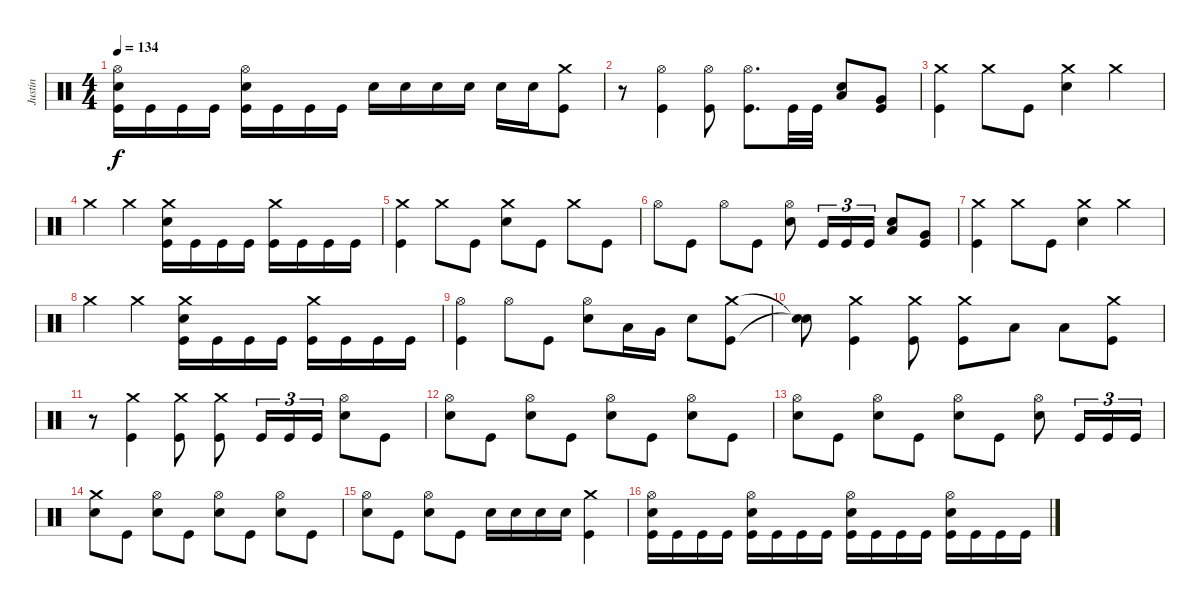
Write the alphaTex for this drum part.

\track ("Justin" "Justin") {instrument percussion}
\staff {score}
\articulation defaults
\ts (4 4)
\tempo 134
\clef neutral
\ks c
("Hi-Hat (open)" "Electric Snare (hit)" "Kick (hit)").16{dy f} "Kick (hit)".16 "Kick (hit)".16 "Kick (hit)".16 ("Hi-Hat (open)" "Electric Snare (hit)" "Kick (hit)").16 "Kick (hit)".16 "Kick (hit)".16 "Kick (hit)".16 "Electric Snare (hit)".16 "Electric Snare (hit)".16 "Electric Snare (hit)".16 "Electric Snare (hit)".16 "Electric Snare (hit)".16 "Electric Snare (hit)".16 ("Crash medium (hit)" "Kick (hit)").8 |
r.8 ("Hi-Hat (open)" "Kick (hit)").4 ("Hi-Hat (open)" "Kick (hit)").8 ("Hi-Hat (open)" "Kick (hit)").8{d} "Kick (hit)".32 "Kick (hit)".32 ("Low Tom (hit)" "Electric Snare (hit)").8 ("Very Low Tom (hit)" "Kick (hit)").8 |
("Crash medium (hit)" "Kick (hit)").4 "Crash medium (hit)".8 "Kick (hit)".8 ("Crash medium (hit)" "Electric Snare (hit)").4 "Crash medium (hit)".4 |
"Crash medium (hit)".4 "Crash medium (hit)".4 ("Crash medium (hit)" "Electric Snare (hit)" "Kick (hit)").16 "Kick (hit)".16 "Kick (hit)".16 "Kick (hit)".16 ("Crash medium (hit)" "Kick (hit)").16 "Kick (hit)".16 "Kick (hit)".16 "Kick (hit)".16 |
("Crash medium (hit)" "Kick (hit)").4 "Crash medium (hit)".8 "Kick (hit)".8 ("Crash medium (hit)" "Electric Snare (hit)").8 "Kick (hit)".8 "Crash medium (hit)".8 "Kick (hit)".8 |
"Hi-Hat (open)".8 "Kick (hit)".8 "Hi-Hat (open)".8 "Kick (hit)".8 ("Hi-Hat (open)" "Electric Snare (hit)").8 "Kick (hit)".16{tu (3 2)} "Kick (hit)".16{tu (3 2)} "Kick (hit)".16{tu (3 2)} ("Low Tom (hit)" "Electric Snare (hit)").8 ("Very Low Tom (hit)" "Kick (hit)").8 |
("Crash medium (hit)" "Kick (hit)").4 "Crash medium (hit)".8 "Kick (hit)".8 ("Crash medium (hit)" "Electric Snare (hit)").4 "Crash medium (hit)".4 |
"Crash medium (hit)".4 "Crash medium (hit)".4 ("Crash medium (hit)" "Electric Snare (hit)" "Kick (hit)").16 "Kick (hit)".16 "Kick (hit)".16 "Kick (hit)".16 ("Crash medium (hit)" "Kick (hit)").16 "Kick (hit)".16 "Kick (hit)".16 "Kick (hit)".16 |
("Hi-Hat (open)" "Kick (hit)").4 "Hi-Hat (open)".8 "Kick (hit)".8 ("Hi-Hat (open)" "Electric Snare (hit)").8 "Low Tom (hit)".16 "Very Low Tom (hit)".16 "Electric Snare (hit)".8 ("Crash medium (hit)" "Kick (hit)").8 |
("Snare (hit)"{t} "Snare (hit)"{t}).8 ("Crash medium (hit)" "Kick (hit)").4 ("Crash medium (hit)" "Kick (hit)").8 ("Crash medium (hit)" "Kick (hit)").8 "Low Floor Tom (hit)".8 "Low Floor Tom (hit)".8 ("Crash medium (hit)" "Kick (hit)").8 |
r.8 ("Crash medium (hit)" "Kick (hit)").4 ("Crash medium (hit)" "Kick (hit)").8 ("Crash medium (hit)" "Kick (hit)").8 "Kick (hit)".16{tu (3 2)} "Kick (hit)".16{tu (3 2)} "Kick (hit)".16{tu (3 2)} ("Hi-Hat (open)" "Electric Snare (hit)").8 "Kick (hit)".8 |
("Hi-Hat (open)" "Electric Snare (hit)").8 "Kick (hit)".8 ("Hi-Hat (open)" "Electric Snare (hit)").8 "Kick (hit)".8 ("Hi-Hat (open)" "Electric Snare (hit)").8 "Kick (hit)".8 ("Hi-Hat (open)" "Electric Snare (hit)").8 "Kick (hit)".8 |
("Hi-Hat (open)" "Electric Snare (hit)").8 "Kick (hit)".8 ("Hi-Hat (open)" "Electric Snare (hit)").8 "Kick (hit)".8 ("Hi-Hat (open)" "Electric Snare (hit)").8 "Kick (hit)".8 ("Hi-Hat (open)" "Electric Snare (hit)").8 "Kick (hit)".16{tu (3 2)} "Kick (hit)".16{tu (3 2)} "Kick (hit)".16{tu (3 2)} |
("Crash medium (hit)" "Electric Snare (hit)").8 "Kick (hit)".8 ("Hi-Hat (open)" "Electric Snare (hit)").8 "Kick (hit)".8 ("Hi-Hat (open)" "Electric Snare (hit)").8 "Kick (hit)".8 ("Hi-Hat (open)" "Electric Snare (hit)").8 "Kick (hit)".8 |
("Hi-Hat (open)" "Electric Snare (hit)").8 "Kick (hit)".8 ("Hi-Hat (open)" "Electric Snare (hit)").8 "Kick (hit)".8 "Electric Snare (hit)".16 "Electric Snare (hit)".16 "Electric Snare (hit)".16 "Electric Snare (hit)".16 ("Crash medium (hit)" "Kick (hit)").4 |
("Hi-Hat (open)" "Electric Snare (hit)" "Kick (hit)").16 "Kick (hit)".16 "Kick (hit)".16 "Kick (hit)".16 ("Hi-Hat (open)" "Electric Snare (hit)" "Kick (hit)").16 "Kick (hit)".16 "Kick (hit)".16 "Kick (hit)".16 ("Hi-Hat (open)" "Electric Snare (hit)" "Kick (hit)").16 "Kick (hit)".16 "Kick (hit)".16 "Kick (hit)".16 ("Hi-Hat (open)" "Electric Snare (hit)" "Kick (hit)").16 "Kick (hit)".16 "Kick (hit)".16 "Kick (hit)".16
